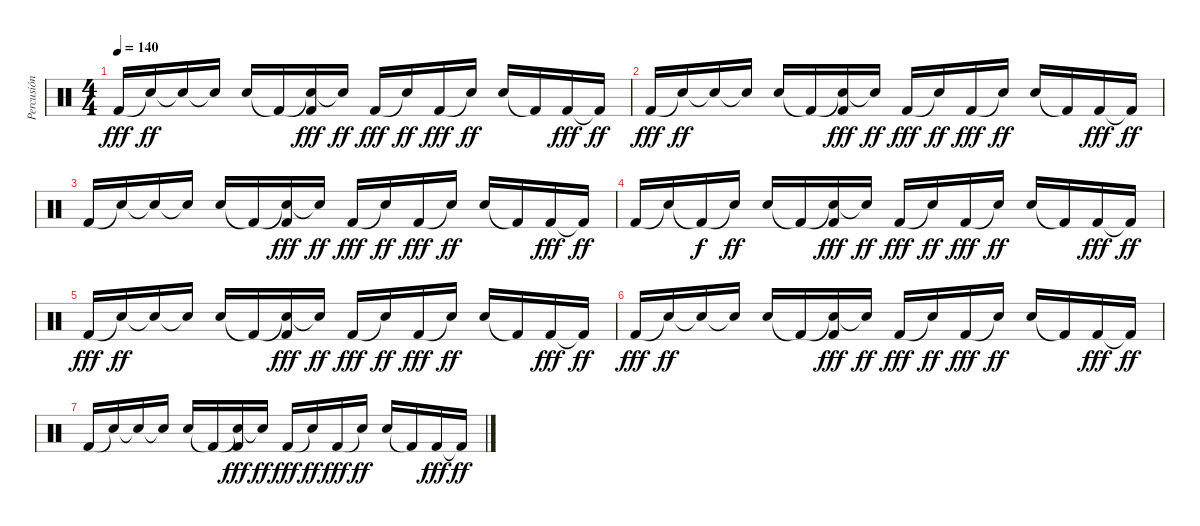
\track ("Percusión" "Percusión") {instrument percussion}
\staff {score}
\articulation defaults
\ts (4 4)
\tempo 140
\clef neutral
\ks c "Kick (hit) 2".16{dy fff} "Snare (hit)"{t}.16{dy ff} "Electric Snare (hit)"{t}.16 "Snare (hit)"{t}.16 "Electric Snare (hit)".16 "Kick (hit) 2"{t}.16
("Electric Snare (hit)"{t} "Kick (hit) 2").16{dy fff} "Snare (hit)"{t}.16{dy ff} "Kick (hit) 2".16{dy fff} "Snare (hit)"{t}.16{dy ff} "Kick (hit) 2".16{dy fff} "Snare (hit)"{t}.16{dy ff} "Electric Snare (hit)".16 "Kick (hit) 2"{t}.16 "Kick (hit) 2".16{dy fff} "Kick (hit) 2"{t}.16{dy ff} |
"Kick (hit) 2".16{dy fff} "Snare (hit)"{t}.16{dy ff} "Electric Snare (hit)"{t}.16 "Snare (hit)"{t}.16 "Electric Snare (hit)".16 "Kick (hit) 2"{t}.16 ("Electric Snare (hit)"{t} "Kick (hit) 2").16{dy fff} "Snare (hit)"{t}.16{dy ff} "Kick (hit) 2".16{dy fff} "Snare (hit)"{t}.16{dy ff} "Kick (hit) 2".16{dy fff} "Snare (hit)"{t}.16{dy ff} "Electric Snare (hit)".16 "Kick (hit) 2"{t}.16 "Kick (hit) 2".16{dy fff} "Kick (hit) 2"{t}.16{dy ff} |
"Kick (hit) 2".16 "Snare (hit)"{t}.16 "Electric Snare (hit)"{t}.16 "Snare (hit)"{t}.16 "Electric Snare (hit)".16 "Kick (hit) 2"{t}.16 ("Electric Snare (hit)"{t} "Kick (hit) 2").16{dy fff} "Snare (hit)"{t}.16{dy ff} "Kick (hit) 2".16{dy fff} "Snare (hit)"{t}.16{dy ff} "Kick (hit) 2".16{dy fff} "Snare (hit)"{t}.16{dy ff} "Electric Snare (hit)".16 "Kick (hit) 2"{t}.16 "Kick (hit) 2".16{dy fff} "Kick (hit) 2"{t}.16{dy ff} |
"Kick (hit) 2".16 "Snare (hit)"{t}.16 "Kick (hit) 2"{t}.16{dy f} "Snare (hit)"{t}.16{dy ff} "Electric Snare (hit)".16 "Kick (hit) 2"{t}.16 ("Electric Snare (hit)"{t} "Kick (hit) 2").16{dy fff} "Snare (hit)"{t}.16{dy ff} "Kick (hit) 2".16{dy fff} "Snare (hit)"{t}.16{dy ff} "Kick (hit) 2".16{dy fff} "Snare (hit)"{t}.16{dy ff} "Electric Snare (hit)".16 "Kick (hit) 2"{t}.16 "Kick (hit) 2".16{dy fff} "Kick (hit) 2"{t}.16{dy ff} |
"Kick (hit) 2".16{dy fff} "Snare (hit)"{t}.16{dy ff} "Electric Snare (hit)"{t}.16 "Snare (hit)"{t}.16 "Electric Snare (hit)".16 "Kick (hit) 2"{t}.16 ("Electric Snare (hit)"{t} "Kick (hit) 2").16{dy fff} "Snare (hit)"{t}.16{dy ff} "Kick (hit) 2".16{dy fff} "Snare (hit)"{t}.16{dy ff} "Kick (hit) 2".16{dy fff} "Snare (hit)"{t}.16{dy ff} "Electric Snare (hit)".16 "Kick (hit) 2"{t}.16 "Kick (hit) 2".16{dy fff} "Kick (hit) 2"{t}.16{dy ff} |
"Kick (hit) 2".16{dy fff} "Snare (hit)"{t}.16{dy ff} "Electric Snare (hit)"{t}.16 "Snare (hit)"{t}.16 "Electric Snare (hit)".16 "Kick (hit) 2"{t}.16 ("Electric Snare (hit)"{t} "Kick (hit) 2").16{dy fff} "Snare (hit)"{t}.16{dy ff} "Kick (hit) 2".16{dy fff} "Snare (hit)"{t}.16{dy ff} "Kick (hit) 2".16{dy fff} "Snare (hit)"{t}.16{dy ff} "Electric Snare (hit)".16 "Kick (hit) 2"{t}.16 "Kick (hit) 2".16{dy fff} "Kick (hit) 2"{t}.16{dy ff} |
"Kick (hit) 2".16 "Snare (hit)"{t}.16 "Electric Snare (hit)"{t}.16 "Snare (hit)"{t}.16 "Electric Snare (hit)".16 "Kick (hit) 2"{t}.16 ("Electric Snare (hit)"{t} "Kick (hit) 2").16{dy fff} "Snare (hit)"{t}.16{dy ff} "Kick (hit) 2".16{dy fff} "Snare (hit)"{t}.16{dy ff} "Kick (hit) 2".16{dy fff} "Snare (hit)"{t}.16{dy ff} "Electric Snare (hit)".16 "Kick (hit) 2"{t}.16 "Kick (hit) 2".16{dy fff} "Kick (hit) 2"{t}.16{dy ff}
